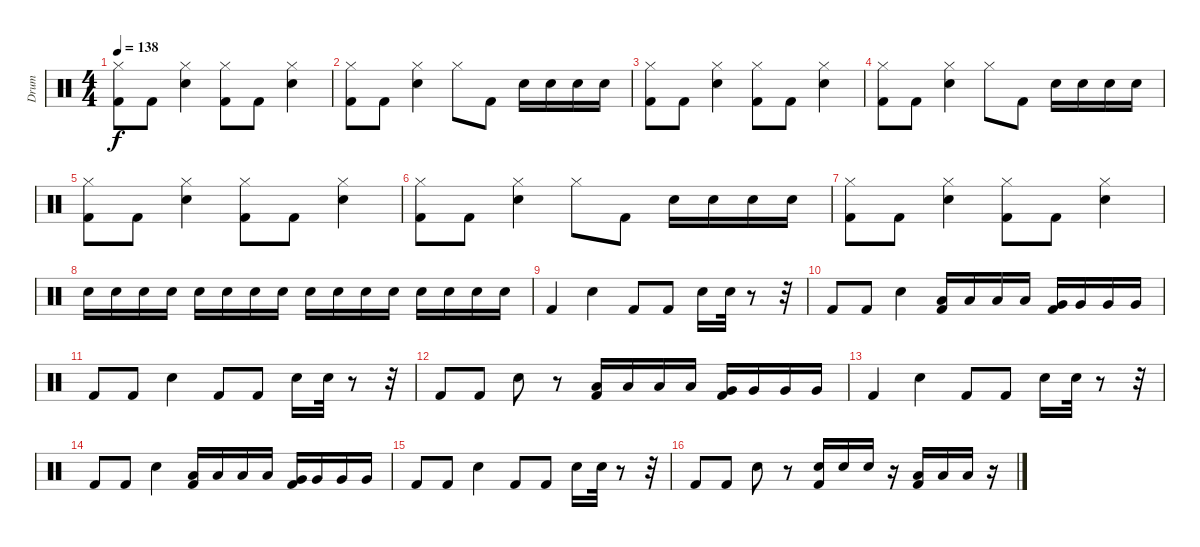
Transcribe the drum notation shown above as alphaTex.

\track ("Drum" "Drum") {instrument percussion}
\staff {score}
\articulation defaults
\ts (4 4)
\tempo 138
\clef neutral
\ks c
("Hi-Hat (closed)" "Kick (hit) 2").8{dy f} "Kick (hit) 2".8 ("Hi-Hat (closed)" "Electric Snare (hit)").4 ("Hi-Hat (closed)" "Kick (hit) 2").8 "Kick (hit) 2".8 ("Hi-Hat (closed)" "Electric Snare (hit)").4 |
("Hi-Hat (closed)" "Kick (hit) 2").8 "Kick (hit) 2".8 ("Hi-Hat (closed)" "Electric Snare (hit)").4 "Hi-Hat (closed)".8 "Kick (hit) 2".8 "Electric Snare (hit)".16 "Electric Snare (hit)".16 "Electric Snare (hit)".16 "Electric Snare (hit)".16 |
("Hi-Hat (closed)" "Kick (hit) 2").8 "Kick (hit) 2".8 ("Hi-Hat (closed)" "Electric Snare (hit)").4 ("Hi-Hat (closed)" "Kick (hit) 2").8 "Kick (hit) 2".8 ("Hi-Hat (closed)" "Electric Snare (hit)").4 |
("Hi-Hat (closed)" "Kick (hit) 2").8 "Kick (hit) 2".8 ("Hi-Hat (closed)" "Electric Snare (hit)").4 "Hi-Hat (closed)".8 "Kick (hit) 2".8 "Electric Snare (hit)".16 "Electric Snare (hit)".16 "Electric Snare (hit)".16 "Electric Snare (hit)".16 |
("Hi-Hat (closed)" "Kick (hit) 2").8 "Kick (hit) 2".8 ("Hi-Hat (closed)" "Electric Snare (hit)").4 ("Hi-Hat (closed)" "Kick (hit) 2").8 "Kick (hit) 2".8 ("Hi-Hat (closed)" "Electric Snare (hit)").4 |
("Hi-Hat (closed)" "Kick (hit) 2").8 "Kick (hit) 2".8 ("Hi-Hat (closed)" "Electric Snare (hit)").4 "Hi-Hat (closed)".8 "Kick (hit) 2".8 "Electric Snare (hit)".16 "Electric Snare (hit)".16 "Electric Snare (hit)".16 "Electric Snare (hit)".16 |
("Hi-Hat (closed)" "Kick (hit) 2").8 "Kick (hit) 2".8 ("Hi-Hat (closed)" "Electric Snare (hit)").4 ("Hi-Hat (closed)" "Kick (hit) 2").8 "Kick (hit) 2".8 ("Hi-Hat (closed)" "Electric Snare (hit)").4 |
"Electric Snare (hit)".16 "Electric Snare (hit)".16 "Electric Snare (hit)".16 "Electric Snare (hit)".16 "Electric Snare (hit)".16 "Electric Snare (hit)".16 "Electric Snare (hit)".16 "Electric Snare (hit)".16 "Electric Snare (hit)".16 "Electric Snare (hit)".16 "Electric Snare (hit)".16 "Electric Snare (hit)".16 "Electric Snare (hit)".16 "Electric Snare (hit)".16 "Electric Snare (hit)".16 "Electric Snare (hit)".16 |
"Kick (hit) 2".4 "Electric Snare (hit)".4 "Kick (hit) 2".8 "Kick (hit) 2".8 "Electric Snare (hit)".16 "Electric Snare (hit)".32 r.8 r.32 |
"Kick (hit) 2".8 "Kick (hit) 2".8 "Electric Snare (hit)".4 ("Low Tom (hit)" "Kick (hit) 2").16 "Low Tom (hit)".16 "Low Tom (hit)".16 "Low Tom (hit)".16 ("Very Low Tom (hit)" "Kick (hit) 2").16 "Very Low Tom (hit)".16 "Very Low Tom (hit)".16 "Very Low Tom (hit)".16 |
"Kick (hit) 2".8 "Kick (hit) 2".8 "Electric Snare (hit)".4 "Kick (hit) 2".8 "Kick (hit) 2".8 "Electric Snare (hit)".16 "Electric Snare (hit)".32 r.8 r.32 |
"Kick (hit) 2".8 "Kick (hit) 2".8 "Electric Snare (hit)".8 r.8 ("Low Tom (hit)" "Kick (hit) 2").16 "Low Tom (hit)".16 "Low Tom (hit)".16 "Low Tom (hit)".16 ("Very Low Tom (hit)" "Kick (hit) 2").16 "Very Low Tom (hit)".16 "Very Low Tom (hit)".16 "Very Low Tom (hit)".16 |
"Kick (hit) 2".4 "Electric Snare (hit)".4 "Kick (hit) 2".8 "Kick (hit) 2".8 "Electric Snare (hit)".16 "Electric Snare (hit)".32 r.8 r.32 |
"Kick (hit) 2".8 "Kick (hit) 2".8 "Electric Snare (hit)".4 ("Low Tom (hit)" "Kick (hit) 2").16 "Low Tom (hit)".16 "Low Tom (hit)".16 "Low Tom (hit)".16 ("Very Low Tom (hit)" "Kick (hit) 2").16 "Very Low Tom (hit)".16 "Very Low Tom (hit)".16 "Very Low Tom (hit)".16 |
"Kick (hit) 2".8 "Kick (hit) 2".8 "Electric Snare (hit)".4 "Kick (hit) 2".8 "Kick (hit) 2".8 "Electric Snare (hit)".16 "Electric Snare (hit)".32 r.8 r.32 |
"Kick (hit) 2".8 "Kick (hit) 2".8 "Electric Snare (hit)".8 r.8 ("Electric Snare (hit)" "Kick (hit) 2").16 "Electric Snare (hit)".16 "Electric Snare (hit)".16 r.16 ("Low Tom (hit)" "Kick (hit) 2").16 "Low Tom (hit)".16 "Low Tom (hit)".16 r.16
